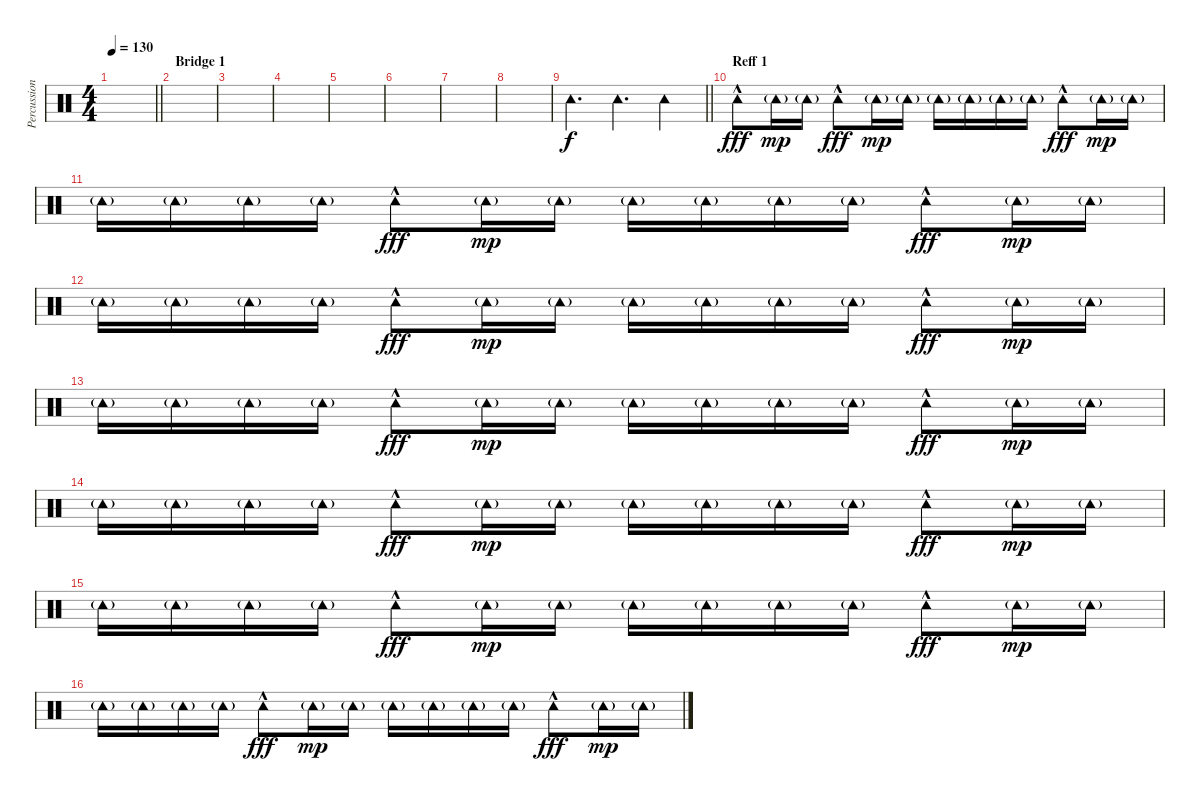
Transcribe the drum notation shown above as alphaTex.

\track ("Percussion 2" "Percussion") {instrument percussion}
\staff {score}
\articulation defaults
\ts (4 4)
\tempo 130
\clef neutral
\barLineRight lightlight
\ks c
|
\section ("" "Bridge 1")
|
|
|
|
|
|
|
\barLineRight lightlight "Tambourine (hit)".4{d} "Tambourine (hit)".4{d} "Tambourine (hit)".4
|
\section ("" "Reff 1")
"Tambourine (hit)"{hac}.8{dy fff} "Tambourine (hit)"{g}.16{dy mp} "Tambourine (hit)"{g}.16 "Tambourine (hit)"{hac}.8{dy fff} "Tambourine (hit)"{g}.16{dy mp} "Tambourine (hit)"{g}.16 "Tambourine (hit)"{g}.16 "Tambourine (hit)"{g}.16 "Tambourine (hit)"{g}.16 "Tambourine (hit)"{g}.16 "Tambourine (hit)"{hac}.8{dy fff} "Tambourine (hit)"{g}.16{dy mp} "Tambourine (hit)"{g}.16 |
"Tambourine (hit)"{g}.16 "Tambourine (hit)"{g}.16 "Tambourine (hit)"{g}.16 "Tambourine (hit)"{g}.16 "Tambourine (hit)"{hac}.8{dy fff} "Tambourine (hit)"{g}.16{dy mp} "Tambourine (hit)"{g}.16 "Tambourine (hit)"{g}.16 "Tambourine (hit)"{g}.16 "Tambourine (hit)"{g}.16 "Tambourine (hit)"{g}.16 "Tambourine (hit)"{hac}.8{dy fff} "Tambourine (hit)"{g}.16{dy mp} "Tambourine (hit)"{g}.16 |
"Tambourine (hit)"{g}.16 "Tambourine (hit)"{g}.16 "Tambourine (hit)"{g}.16 "Tambourine (hit)"{g}.16 "Tambourine (hit)"{hac}.8{dy fff} "Tambourine (hit)"{g}.16{dy mp} "Tambourine (hit)"{g}.16 "Tambourine (hit)"{g}.16 "Tambourine (hit)"{g}.16 "Tambourine (hit)"{g}.16 "Tambourine (hit)"{g}.16 "Tambourine (hit)"{hac}.8{dy fff} "Tambourine (hit)"{g}.16{dy mp} "Tambourine (hit)"{g}.16 |
"Tambourine (hit)"{g}.16 "Tambourine (hit)"{g}.16 "Tambourine (hit)"{g}.16 "Tambourine (hit)"{g}.16 "Tambourine (hit)"{hac}.8{dy fff} "Tambourine (hit)"{g}.16{dy mp} "Tambourine (hit)"{g}.16 "Tambourine (hit)"{g}.16 "Tambourine (hit)"{g}.16 "Tambourine (hit)"{g}.16 "Tambourine (hit)"{g}.16 "Tambourine (hit)"{hac}.8{dy fff} "Tambourine (hit)"{g}.16{dy mp} "Tambourine (hit)"{g}.16 |
"Tambourine (hit)"{g}.16 "Tambourine (hit)"{g}.16 "Tambourine (hit)"{g}.16 "Tambourine (hit)"{g}.16 "Tambourine (hit)"{hac}.8{dy fff} "Tambourine (hit)"{g}.16{dy mp} "Tambourine (hit)"{g}.16 "Tambourine (hit)"{g}.16 "Tambourine (hit)"{g}.16 "Tambourine (hit)"{g}.16 "Tambourine (hit)"{g}.16 "Tambourine (hit)"{hac}.8{dy fff} "Tambourine (hit)"{g}.16{dy mp} "Tambourine (hit)"{g}.16 |
"Tambourine (hit)"{g}.16 "Tambourine (hit)"{g}.16 "Tambourine (hit)"{g}.16 "Tambourine (hit)"{g}.16 "Tambourine (hit)"{hac}.8{dy fff} "Tambourine (hit)"{g}.16{dy mp} "Tambourine (hit)"{g}.16 "Tambourine (hit)"{g}.16 "Tambourine (hit)"{g}.16 "Tambourine (hit)"{g}.16 "Tambourine (hit)"{g}.16 "Tambourine (hit)"{hac}.8{dy fff} "Tambourine (hit)"{g}.16{dy mp} "Tambourine (hit)"{g}.16 |
"Tambourine (hit)"{g}.16 "Tambourine (hit)"{g}.16 "Tambourine (hit)"{g}.16 "Tambourine (hit)"{g}.16 "Tambourine (hit)"{hac}.8{dy fff} "Tambourine (hit)"{g}.16{dy mp} "Tambourine (hit)"{g}.16 "Tambourine (hit)"{g}.16 "Tambourine (hit)"{g}.16 "Tambourine (hit)"{g}.16 "Tambourine (hit)"{g}.16 "Tambourine (hit)"{hac}.8{dy fff} "Tambourine (hit)"{g}.16{dy mp} "Tambourine (hit)"{g}.16
